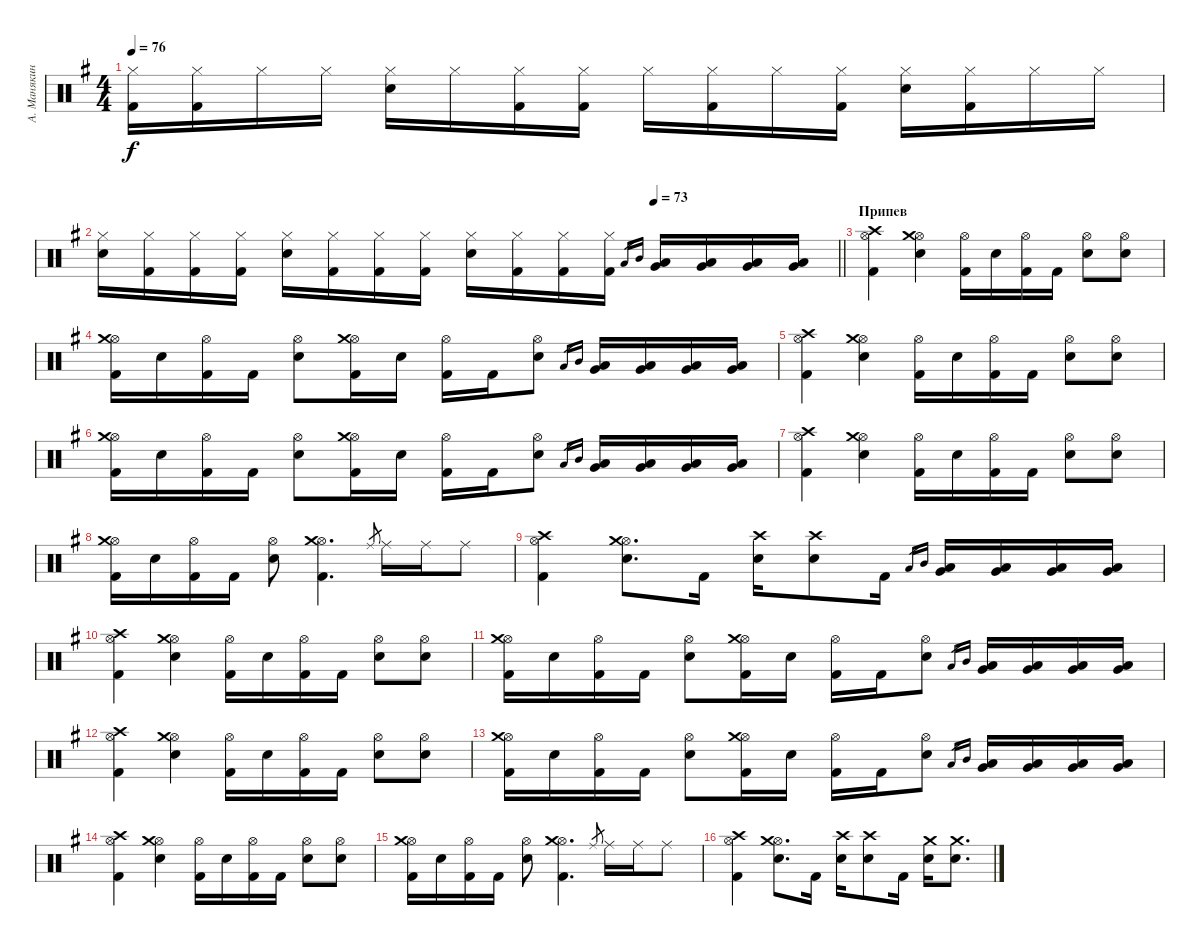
\track ("А. Манякин" "А. Манякин") {instrument percussion}
\staff {score}
\articulation defaults
\ts (4 4)
\tempo 76
\clef neutral
\ks g
("Kick (hit) 2" "Hi-Hat (closed)").16{dy f} ("Kick (hit) 2" "Hi-Hat (closed)").16 "Hi-Hat (closed)".16 "Hi-Hat (closed)".16 ("Electric Snare (hit)" "Hi-Hat (closed)").16 "Hi-Hat (closed)".16 ("Kick (hit) 2" "Hi-Hat (closed)").16 ("Kick (hit) 2" "Hi-Hat (closed)").16 "Hi-Hat (closed)".16 ("Kick (hit) 2" "Hi-Hat (closed)").16 "Hi-Hat (closed)".16 ("Kick (hit) 2" "Hi-Hat (closed)").16 ("Electric Snare (hit)" "Hi-Hat (closed)").16 ("Kick (hit) 2" "Hi-Hat (closed)").16 "Hi-Hat (closed)".16 "Hi-Hat (closed)".16 |
\tempo (73 0.75)
\barLineRight lightlight
("Electric Snare (hit)" "Hi-Hat (closed)").16 ("Kick (hit) 2" "Hi-Hat (closed)").16 ("Kick (hit) 2" "Hi-Hat (closed)").16 ("Kick (hit) 2" "Hi-Hat (closed)").16 ("Electric Snare (hit)" "Hi-Hat (closed)").16 ("Kick (hit) 2" "Hi-Hat (closed)").16 ("Kick (hit) 2" "Hi-Hat (closed)").16 ("Kick (hit) 2" "Hi-Hat (closed)").16 ("Electric Snare (hit)" "Hi-Hat (closed)").16 ("Kick (hit) 2" "Hi-Hat (closed)").16 ("Kick (hit) 2" "Hi-Hat (closed)").16 ("Kick (hit) 2" "Hi-Hat (closed)").16 "Low Tom (hit)".16{gr} "Mid Tom (hit)".16{gr} ("Very Low Tom (hit)" "Low Tom (hit)").16 ("Very Low Tom (hit)" "Low Tom (hit)").16 ("Low Floor Tom (hit)" "Very Low Tom (hit)").16 ("Low Floor Tom (hit)" "Very Low Tom (hit)").16 |
\section ("" "Припев")
("Kick (hit) 2" "Hi-Hat (open)" "Crash high (hit)").4 ("Electric Snare (hit)" "Hi-Hat (open)" "Crash medium (hit)").4 ("Kick (hit) 2" "Hi-Hat (open)").16 "Electric Snare (hit)".16 ("Kick (hit) 2" "Hi-Hat (open)").16 "Kick (hit) 2".16 ("Electric Snare (hit)" "Hi-Hat (open)").8 ("Electric Snare (hit)" "Hi-Hat (open)").8 |
("Kick (hit) 2" "Hi-Hat (open)" "Crash medium (hit)").16 "Electric Snare (hit)".16 ("Kick (hit) 2" "Hi-Hat (open)").16 "Kick (hit) 2".16 ("Electric Snare (hit)" "Hi-Hat (open)").8 ("Kick (hit) 2" "Hi-Hat (open)" "Crash medium (hit)").16 "Electric Snare (hit)".16 ("Kick (hit) 2" "Hi-Hat (open)").16 "Kick (hit) 2".16 ("Electric Snare (hit)" "Hi-Hat (open)").8 "Low Tom (hit)".16{gr} "Mid Tom (hit)".16{gr} ("Very Low Tom (hit)" "Low Tom (hit)").16 ("Very Low Tom (hit)" "Low Tom (hit)").16 ("Low Floor Tom (hit)" "Very Low Tom (hit)").16 ("Low Floor Tom (hit)" "Very Low Tom (hit)").16 |
("Kick (hit) 2" "Hi-Hat (open)" "Crash high (hit)").4 ("Electric Snare (hit)" "Hi-Hat (open)" "Crash medium (hit)").4 ("Kick (hit) 2" "Hi-Hat (open)").16 "Electric Snare (hit)".16 ("Kick (hit) 2" "Hi-Hat (open)").16 "Kick (hit) 2".16 ("Electric Snare (hit)" "Hi-Hat (open)").8 ("Electric Snare (hit)" "Hi-Hat (open)").8 |
("Kick (hit) 2" "Hi-Hat (open)" "Crash medium (hit)").16 "Electric Snare (hit)".16 ("Kick (hit) 2" "Hi-Hat (open)").16 "Kick (hit) 2".16 ("Electric Snare (hit)" "Hi-Hat (open)").8 ("Kick (hit) 2" "Hi-Hat (open)" "Crash medium (hit)").16 "Electric Snare (hit)".16 ("Kick (hit) 2" "Hi-Hat (open)").16 "Kick (hit) 2".16 ("Electric Snare (hit)" "Hi-Hat (open)").8 "Low Tom (hit)".16{gr} "Mid Tom (hit)".16{gr} ("Very Low Tom (hit)" "Low Tom (hit)").16 ("Very Low Tom (hit)" "Low Tom (hit)").16 ("Low Floor Tom (hit)" "Very Low Tom (hit)").16 ("Low Floor Tom (hit)" "Very Low Tom (hit)").16 |
("Kick (hit) 2" "Hi-Hat (open)" "Crash high (hit)").4 ("Electric Snare (hit)" "Hi-Hat (open)" "Crash medium (hit)").4 ("Kick (hit) 2" "Hi-Hat (open)").16 "Electric Snare (hit)".16 ("Kick (hit) 2" "Hi-Hat (open)").16 "Kick (hit) 2".16 ("Electric Snare (hit)" "Hi-Hat (open)").8 ("Electric Snare (hit)" "Hi-Hat (open)").8 |
("Kick (hit) 2" "Hi-Hat (open)" "Crash medium (hit)").16 "Electric Snare (hit)".16 ("Kick (hit) 2" "Hi-Hat (open)").16 "Kick (hit) 2".16 ("Electric Snare (hit)" "Hi-Hat (open)").8 ("Kick (hit) 2" "Hi-Hat (open)" "Crash medium (hit)").4{d} "Ride (middle)".8{gr} "Ride (middle)".16 "Ride (middle)".16 "Ride (middle)".8 |
("Kick (hit) 2" "Hi-Hat (open)" "Crash high (hit)").4 ("Electric Snare (hit)" "Hi-Hat (open)" "Crash medium (hit)").8{d} "Kick (hit) 2".16 ("Electric Snare (hit)" "Crash high (hit)").16 ("Electric Snare (hit)" "Crash high (hit)").8 "Kick (hit) 2".16 "Low Tom (hit)".16{gr} "Mid Tom (hit)".16{gr} ("Very Low Tom (hit)" "Low Tom (hit)").16 ("Very Low Tom (hit)" "Low Tom (hit)").16 ("Low Floor Tom (hit)" "Very Low Tom (hit)").16 ("Low Floor Tom (hit)" "Very Low Tom (hit)").16 |
("Kick (hit) 2" "Hi-Hat (open)" "Crash high (hit)").4 ("Electric Snare (hit)" "Hi-Hat (open)" "Crash medium (hit)").4 ("Kick (hit) 2" "Hi-Hat (open)").16 "Electric Snare (hit)".16 ("Kick (hit) 2" "Hi-Hat (open)").16 "Kick (hit) 2".16 ("Electric Snare (hit)" "Hi-Hat (open)").8 ("Electric Snare (hit)" "Hi-Hat (open)").8 |
("Kick (hit) 2" "Hi-Hat (open)" "Crash medium (hit)").16 "Electric Snare (hit)".16 ("Kick (hit) 2" "Hi-Hat (open)").16 "Kick (hit) 2".16 ("Electric Snare (hit)" "Hi-Hat (open)").8 ("Kick (hit) 2" "Hi-Hat (open)" "Crash medium (hit)").16 "Electric Snare (hit)".16 ("Kick (hit) 2" "Hi-Hat (open)").16 "Kick (hit) 2".16 ("Electric Snare (hit)" "Hi-Hat (open)").8 "Low Tom (hit)".16{gr} "Mid Tom (hit)".16{gr} ("Very Low Tom (hit)" "Low Tom (hit)").16 ("Very Low Tom (hit)" "Low Tom (hit)").16 ("Low Floor Tom (hit)" "Very Low Tom (hit)").16 ("Low Floor Tom (hit)" "Very Low Tom (hit)").16 |
("Kick (hit) 2" "Hi-Hat (open)" "Crash high (hit)").4 ("Electric Snare (hit)" "Hi-Hat (open)" "Crash medium (hit)").4 ("Kick (hit) 2" "Hi-Hat (open)").16 "Electric Snare (hit)".16 ("Kick (hit) 2" "Hi-Hat (open)").16 "Kick (hit) 2".16 ("Electric Snare (hit)" "Hi-Hat (open)").8 ("Electric Snare (hit)" "Hi-Hat (open)").8 |
("Kick (hit) 2" "Hi-Hat (open)" "Crash medium (hit)").16 "Electric Snare (hit)".16 ("Kick (hit) 2" "Hi-Hat (open)").16 "Kick (hit) 2".16 ("Electric Snare (hit)" "Hi-Hat (open)").8 ("Kick (hit) 2" "Hi-Hat (open)" "Crash medium (hit)").16 "Electric Snare (hit)".16 ("Kick (hit) 2" "Hi-Hat (open)").16 "Kick (hit) 2".16 ("Electric Snare (hit)" "Hi-Hat (open)").8 "Low Tom (hit)".16{gr} "Mid Tom (hit)".16{gr} ("Very Low Tom (hit)" "Low Tom (hit)").16 ("Very Low Tom (hit)" "Low Tom (hit)").16 ("Low Floor Tom (hit)" "Very Low Tom (hit)").16 ("Low Floor Tom (hit)" "Very Low Tom (hit)").16 |
("Kick (hit) 2" "Hi-Hat (open)" "Crash high (hit)").4 ("Electric Snare (hit)" "Hi-Hat (open)" "Crash medium (hit)").4 ("Kick (hit) 2" "Hi-Hat (open)").16 "Electric Snare (hit)".16 ("Kick (hit) 2" "Hi-Hat (open)").16 "Kick (hit) 2".16 ("Electric Snare (hit)" "Hi-Hat (open)").8 ("Electric Snare (hit)" "Hi-Hat (open)").8 |
("Kick (hit) 2" "Hi-Hat (open)" "Crash medium (hit)").16 "Electric Snare (hit)".16 ("Kick (hit) 2" "Hi-Hat (open)").16 "Kick (hit) 2".16 ("Electric Snare (hit)" "Hi-Hat (open)").8 ("Kick (hit) 2" "Hi-Hat (open)" "Crash medium (hit)").4{d} "Ride (middle)".8{gr} "Ride (middle)".16 "Ride (middle)".16 "Ride (middle)".8 |
("Kick (hit) 2" "Hi-Hat (open)" "Crash high (hit)").4 ("Electric Snare (hit)" "Hi-Hat (open)" "Crash medium (hit)").8{d} "Kick (hit) 2".16 ("Electric Snare (hit)" "Crash high (hit)").16 ("Electric Snare (hit)" "Crash high (hit)").8 "Kick (hit) 2".16 ("Electric Snare (hit)" "Crash medium (hit)").16 ("Electric Snare (hit)" "Crash medium (hit)").8{d}
